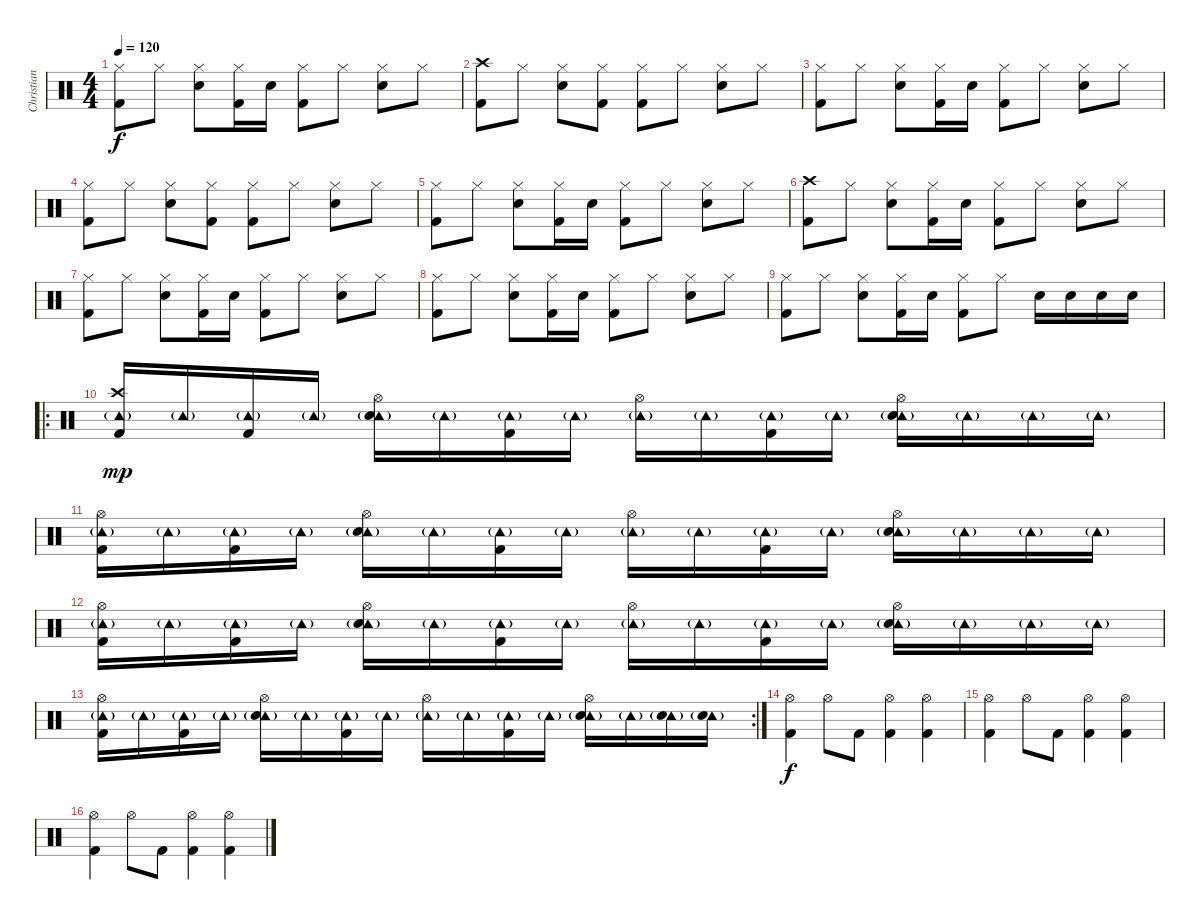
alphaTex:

\track ("Christian" "Christian") {instrument percussion}
\staff {score}
\articulation defaults
\ts (4 4)
\tempo 120
\clef neutral
\ks c
("Hi-Hat (closed)" "Kick (hit) 2").8{dy f} "Hi-Hat (closed)".8 ("Hi-Hat (closed)" "Snare (hit) 2").8 ("Hi-Hat (closed)" "Kick (hit) 2").16 "Snare (hit) 2".16 ("Hi-Hat (closed)" "Kick (hit) 2").8 "Hi-Hat (closed)".8 ("Hi-Hat (closed)" "Snare (hit) 2").8 "Hi-Hat (closed)".8 |
("Crash high (hit)" "Kick (hit) 2").8 "Hi-Hat (closed)".8 ("Hi-Hat (closed)" "Snare (hit) 2").8 ("Hi-Hat (closed)" "Kick (hit) 2").8 ("Hi-Hat (closed)" "Kick (hit) 2").8 "Hi-Hat (closed)".8 ("Hi-Hat (closed)" "Snare (hit) 2").8 "Hi-Hat (closed)".8 |
("Hi-Hat (closed)" "Kick (hit) 2").8 "Hi-Hat (closed)".8 ("Hi-Hat (closed)" "Snare (hit) 2").8 ("Hi-Hat (closed)" "Kick (hit) 2").16 "Snare (hit) 2".16 ("Hi-Hat (closed)" "Kick (hit) 2").8 "Hi-Hat (closed)".8 ("Hi-Hat (closed)" "Snare (hit) 2").8 "Hi-Hat (closed)".8 |
("Hi-Hat (closed)" "Kick (hit) 2").8 "Hi-Hat (closed)".8 ("Hi-Hat (closed)" "Snare (hit) 2").8 ("Hi-Hat (closed)" "Kick (hit) 2").8 ("Hi-Hat (closed)" "Kick (hit) 2").8 "Hi-Hat (closed)".8 ("Hi-Hat (closed)" "Snare (hit) 2").8 "Hi-Hat (closed)".8 |
("Hi-Hat (closed)" "Kick (hit) 2").8 "Hi-Hat (closed)".8 ("Hi-Hat (closed)" "Snare (hit) 2").8 ("Hi-Hat (closed)" "Kick (hit) 2").16 "Snare (hit) 2".16 ("Hi-Hat (closed)" "Kick (hit) 2").8 "Hi-Hat (closed)".8 ("Hi-Hat (closed)" "Snare (hit) 2").8 "Hi-Hat (closed)".8 |
("Crash high (hit)" "Kick (hit) 2").8 "Hi-Hat (closed)".8 ("Hi-Hat (closed)" "Snare (hit) 2").8 ("Hi-Hat (closed)" "Kick (hit) 2").16 "Snare (hit) 2".16 ("Hi-Hat (closed)" "Kick (hit) 2").8 "Hi-Hat (closed)".8 ("Hi-Hat (closed)" "Snare (hit) 2").8 "Hi-Hat (closed)".8 |
("Hi-Hat (closed)" "Kick (hit) 2").8 "Hi-Hat (closed)".8 ("Hi-Hat (closed)" "Snare (hit) 2").8 ("Hi-Hat (closed)" "Kick (hit) 2").16 "Snare (hit) 2".16 ("Hi-Hat (closed)" "Kick (hit) 2").8 "Hi-Hat (closed)".8 ("Hi-Hat (closed)" "Snare (hit) 2").8 "Hi-Hat (closed)".8 |
("Hi-Hat (closed)" "Kick (hit) 2").8 "Hi-Hat (closed)".8 ("Hi-Hat (closed)" "Snare (hit) 2").8 ("Hi-Hat (closed)" "Kick (hit) 2").16 "Snare (hit) 2".16 ("Hi-Hat (closed)" "Kick (hit) 2").8 "Hi-Hat (closed)".8 ("Hi-Hat (closed)" "Snare (hit) 2").8 "Hi-Hat (closed)".8 |
("Hi-Hat (closed)" "Kick (hit) 2").8 "Hi-Hat (closed)".8 ("Hi-Hat (closed)" "Snare (hit) 2").8 ("Hi-Hat (closed)" "Kick (hit) 2").16 "Snare (hit) 2".16 ("Hi-Hat (closed)" "Kick (hit) 2").8 "Hi-Hat (closed)".8 "Snare (hit) 2".16 "Snare (hit) 2".16 "Snare (hit) 2".16 "Snare (hit) 2".16 |
\ro
("Crash high (hit)" "Tambourine (hit)"{g} "Kick (hit) 2").16{dy mp} "Tambourine (hit)"{g}.16 ("Tambourine (hit)"{g} "Kick (hit) 2").16 "Tambourine (hit)"{g}.16 ("Tambourine (hit)"{g} "Hi-Hat (open)" "Snare (hit) 2").16 "Tambourine (hit)"{g}.16 ("Tambourine (hit)"{g} "Kick (hit) 2").16 "Tambourine (hit)"{g}.16 ("Tambourine (hit)"{g} "Hi-Hat (open)").16 "Tambourine (hit)"{g}.16 ("Tambourine (hit)"{g} "Kick (hit) 2").16 "Tambourine (hit)"{g}.16 ("Tambourine (hit)"{g} "Hi-Hat (open)" "Snare (hit) 2").16 "Tambourine (hit)"{g}.16 "Tambourine (hit)"{g}.16 "Tambourine (hit)"{g}.16 |
("Tambourine (hit)"{g} "Hi-Hat (open)" "Kick (hit) 2").16 "Tambourine (hit)"{g}.16 ("Tambourine (hit)"{g} "Kick (hit) 2").16 "Tambourine (hit)"{g}.16 ("Tambourine (hit)"{g} "Hi-Hat (open)" "Snare (hit) 2").16 "Tambourine (hit)"{g}.16 ("Tambourine (hit)"{g} "Kick (hit) 2").16 "Tambourine (hit)"{g}.16 ("Tambourine (hit)"{g} "Hi-Hat (open)").16 "Tambourine (hit)"{g}.16 ("Tambourine (hit)"{g} "Kick (hit) 2").16 "Tambourine (hit)"{g}.16 ("Tambourine (hit)"{g} "Hi-Hat (open)" "Snare (hit) 2").16 "Tambourine (hit)"{g}.16 "Tambourine (hit)"{g}.16 "Tambourine (hit)"{g}.16 |
("Tambourine (hit)"{g} "Hi-Hat (open)" "Kick (hit) 2").16 "Tambourine (hit)"{g}.16 ("Tambourine (hit)"{g} "Kick (hit) 2").16 "Tambourine (hit)"{g}.16 ("Tambourine (hit)"{g} "Hi-Hat (open)" "Snare (hit) 2").16 "Tambourine (hit)"{g}.16 ("Tambourine (hit)"{g} "Kick (hit) 2").16 "Tambourine (hit)"{g}.16 ("Tambourine (hit)"{g} "Hi-Hat (open)").16 "Tambourine (hit)"{g}.16 ("Tambourine (hit)"{g} "Kick (hit) 2").16 "Tambourine (hit)"{g}.16 ("Tambourine (hit)"{g} "Hi-Hat (open)" "Snare (hit) 2").16 "Tambourine (hit)"{g}.16 "Tambourine (hit)"{g}.16 "Tambourine (hit)"{g}.16 |
\rc 2
("Tambourine (hit)"{g} "Hi-Hat (open)" "Kick (hit) 2").16 "Tambourine (hit)"{g}.16 ("Tambourine (hit)"{g} "Kick (hit) 2").16 "Tambourine (hit)"{g}.16 ("Tambourine (hit)"{g} "Hi-Hat (open)" "Snare (hit) 2").16 "Tambourine (hit)"{g}.16 ("Tambourine (hit)"{g} "Kick (hit) 2").16 "Tambourine (hit)"{g}.16 ("Tambourine (hit)"{g} "Hi-Hat (open)").16 "Tambourine (hit)"{g}.16 ("Tambourine (hit)"{g} "Kick (hit) 2").16 "Tambourine (hit)"{g}.16 ("Tambourine (hit)"{g} "Hi-Hat (open)" "Snare (hit) 2").16 "Tambourine (hit)"{g}.16 ("Tambourine (hit)"{g} "Snare (hit) 2").16 ("Tambourine (hit)"{g} "Snare (hit) 2").16 |
("Hi-Hat (open)" "Kick (hit) 2").4{dy f} "Hi-Hat (open)".8 "Kick (hit) 2".8 ("Hi-Hat (open)" "Kick (hit) 2").4 ("Hi-Hat (open)" "Kick (hit) 2").4 |
("Hi-Hat (open)" "Kick (hit) 2").4 "Hi-Hat (open)".8 "Kick (hit) 2".8 ("Hi-Hat (open)" "Kick (hit) 2").4 ("Hi-Hat (open)" "Kick (hit) 2").4 |
("Hi-Hat (open)" "Kick (hit) 2").4 "Hi-Hat (open)".8 "Kick (hit) 2".8 ("Hi-Hat (open)" "Kick (hit) 2").4 ("Hi-Hat (open)" "Kick (hit) 2").4
